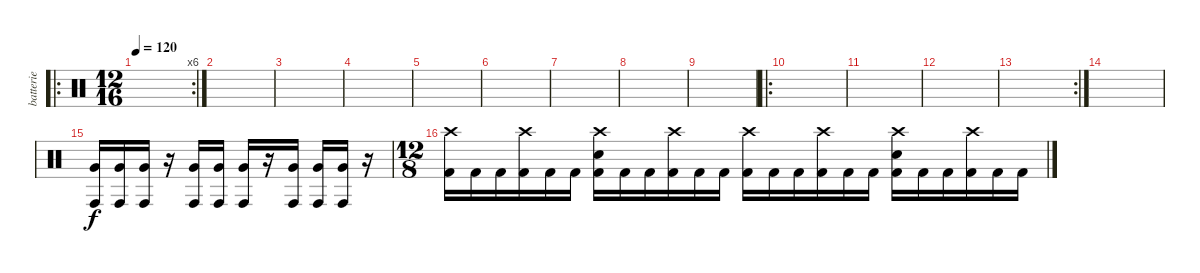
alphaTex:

\track ("batterie" "batterie") {instrument percussion}
\staff {score}
\articulation defaults
\ro
\rc 6
\ts (12 16)
\tempo 120
\clef neutral
\ks c
|
|
|
|
|
|
|
|
|
\ro
|
|
|
\rc 2
|
|
("Conga high (hit)" "Very Low Tom (hit)").16 ("Conga high (hit)" "Very Low Tom (hit)").16 ("Conga high (hit)" "Very Low Tom (hit)").16 r.16 ("Conga high (hit)" "Very Low Tom (hit)").16 ("Conga high (hit)" "Very Low Tom (hit)").16 ("Conga high (hit)" "Very Low Tom (hit)").16 r.16 ("Conga high (hit)" "Very Low Tom (hit)").16 ("Conga high (hit)" "Very Low Tom (hit)").16 ("Conga high (hit)" "Very Low Tom (hit)").16 r.16 |
\ts (12 8)
("Crash high (hit)" "Kick (hit) 2").16 "Kick (hit) 2".16 "Kick (hit) 2".16 ("Crash high (hit)" "Kick (hit) 2").16 "Kick (hit) 2".16 "Kick (hit) 2".16 ("Crash high (hit)" "Kick (hit) 2" "Snare (hit) 2").16 "Kick (hit) 2".16 "Kick (hit) 2".16 ("Crash high (hit)" "Kick (hit) 2").16 "Kick (hit) 2".16 "Kick (hit) 2".16 ("Crash high (hit)" "Kick (hit) 2").16 "Kick (hit) 2".16 "Kick (hit) 2".16 ("Crash high (hit)" "Kick (hit) 2").16 "Kick (hit) 2".16 "Kick (hit) 2".16 ("Crash high (hit)" "Kick (hit) 2" "Snare (hit) 2").16 "Kick (hit) 2".16 "Kick (hit) 2".16 ("Crash high (hit)" "Kick (hit) 2").16 "Kick (hit) 2".16 "Kick (hit) 2".16
